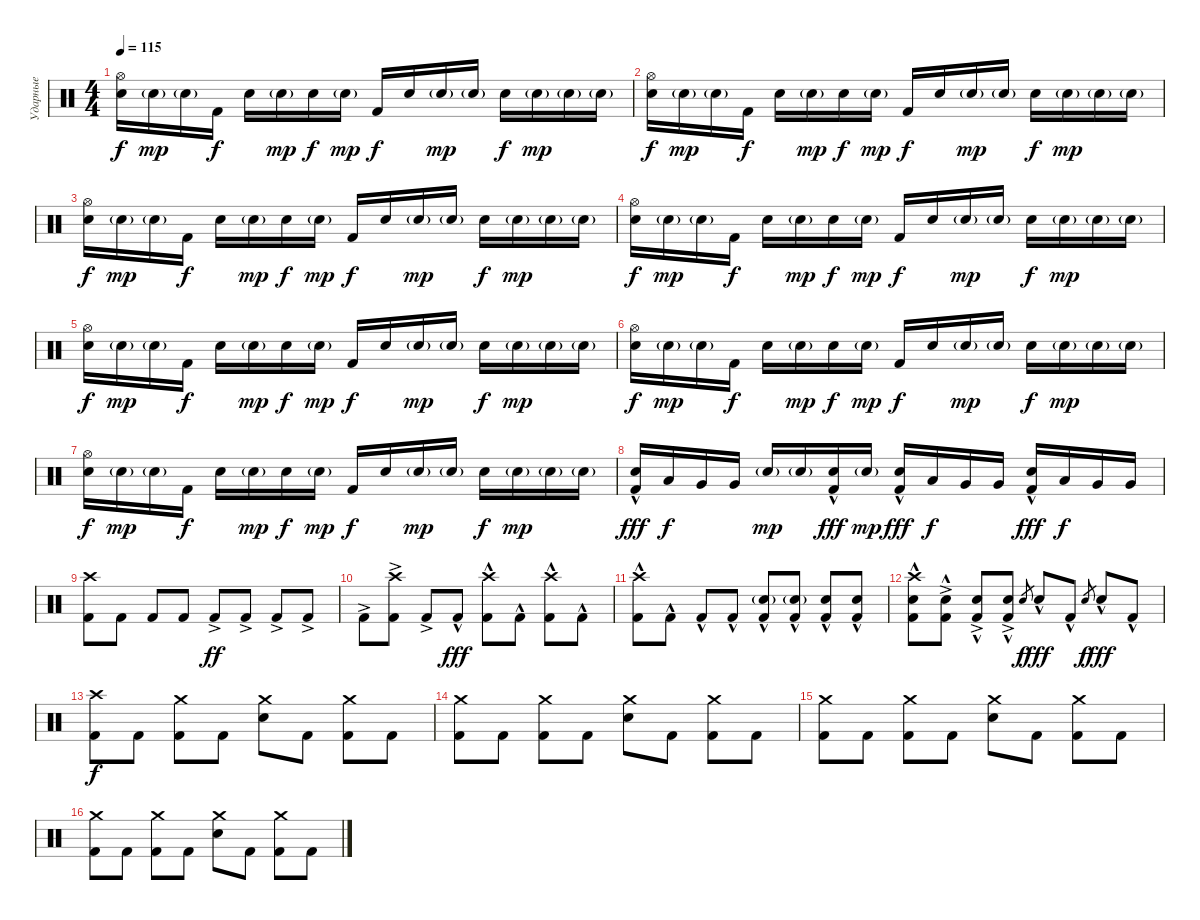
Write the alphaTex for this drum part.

\track ("Ударные" "Ударные") {instrument percussion}
\staff {score}
\articulation defaults
\ts (4 4)
\tempo 115
\clef neutral
\ks c
("Hi-Hat (open)" "Electric Snare (hit)").16{dy f} "Electric Snare (hit)"{g}.16{dy mp} "Electric Snare (hit)"{g}.16 "Kick (hit) 2".16{dy f} "Electric Snare (hit)".16 "Electric Snare (hit)"{g}.16{dy mp} "Electric Snare (hit)".16{dy f} "Electric Snare (hit)"{g}.16{dy mp} "Kick (hit) 2".16{dy f} "Electric Snare (hit)".16 "Electric Snare (hit)"{g}.16{dy mp} "Electric Snare (hit)"{g}.16 "Electric Snare (hit)".16{dy f} "Electric Snare (hit)"{g}.16{dy mp} "Electric Snare (hit)"{g}.16 "Electric Snare (hit)"{g}.16 |
("Hi-Hat (open)" "Electric Snare (hit)").16{dy f} "Electric Snare (hit)"{g}.16{dy mp} "Electric Snare (hit)"{g}.16 "Kick (hit) 2".16{dy f} "Electric Snare (hit)".16 "Electric Snare (hit)"{g}.16{dy mp} "Electric Snare (hit)".16{dy f} "Electric Snare (hit)"{g}.16{dy mp} "Kick (hit) 2".16{dy f} "Electric Snare (hit)".16 "Electric Snare (hit)"{g}.16{dy mp} "Electric Snare (hit)"{g}.16 "Electric Snare (hit)".16{dy f} "Electric Snare (hit)"{g}.16{dy mp} "Electric Snare (hit)"{g}.16 "Electric Snare (hit)"{g}.16 |
("Hi-Hat (open)" "Electric Snare (hit)").16{dy f} "Electric Snare (hit)"{g}.16{dy mp} "Electric Snare (hit)"{g}.16 "Kick (hit) 2".16{dy f} "Electric Snare (hit)".16 "Electric Snare (hit)"{g}.16{dy mp} "Electric Snare (hit)".16{dy f} "Electric Snare (hit)"{g}.16{dy mp} "Kick (hit) 2".16{dy f} "Electric Snare (hit)".16 "Electric Snare (hit)"{g}.16{dy mp} "Electric Snare (hit)"{g}.16 "Electric Snare (hit)".16{dy f} "Electric Snare (hit)"{g}.16{dy mp} "Electric Snare (hit)"{g}.16 "Electric Snare (hit)"{g}.16 |
("Hi-Hat (open)" "Electric Snare (hit)").16{dy f} "Electric Snare (hit)"{g}.16{dy mp} "Electric Snare (hit)"{g}.16 "Kick (hit) 2".16{dy f} "Electric Snare (hit)".16 "Electric Snare (hit)"{g}.16{dy mp} "Electric Snare (hit)".16{dy f} "Electric Snare (hit)"{g}.16{dy mp} "Kick (hit) 2".16{dy f} "Electric Snare (hit)".16 "Electric Snare (hit)"{g}.16{dy mp} "Electric Snare (hit)"{g}.16 "Electric Snare (hit)".16{dy f} "Electric Snare (hit)"{g}.16{dy mp} "Electric Snare (hit)"{g}.16 "Electric Snare (hit)"{g}.16 |
("Hi-Hat (open)" "Electric Snare (hit)").16{dy f} "Electric Snare (hit)"{g}.16{dy mp} "Electric Snare (hit)"{g}.16 "Kick (hit) 2".16{dy f} "Electric Snare (hit)".16 "Electric Snare (hit)"{g}.16{dy mp} "Electric Snare (hit)".16{dy f} "Electric Snare (hit)"{g}.16{dy mp} "Kick (hit) 2".16{dy f} "Electric Snare (hit)".16 "Electric Snare (hit)"{g}.16{dy mp} "Electric Snare (hit)"{g}.16 "Electric Snare (hit)".16{dy f} "Electric Snare (hit)"{g}.16{dy mp} "Electric Snare (hit)"{g}.16 "Electric Snare (hit)"{g}.16 |
("Hi-Hat (open)" "Electric Snare (hit)").16{dy f} "Electric Snare (hit)"{g}.16{dy mp} "Electric Snare (hit)"{g}.16 "Kick (hit) 2".16{dy f} "Electric Snare (hit)".16 "Electric Snare (hit)"{g}.16{dy mp} "Electric Snare (hit)".16{dy f} "Electric Snare (hit)"{g}.16{dy mp} "Kick (hit) 2".16{dy f} "Electric Snare (hit)".16 "Electric Snare (hit)"{g}.16{dy mp} "Electric Snare (hit)"{g}.16 "Electric Snare (hit)".16{dy f} "Electric Snare (hit)"{g}.16{dy mp} "Electric Snare (hit)"{g}.16 "Electric Snare (hit)"{g}.16 |
("Hi-Hat (open)" "Electric Snare (hit)").16{dy f} "Electric Snare (hit)"{g}.16{dy mp} "Electric Snare (hit)"{g}.16 "Kick (hit) 2".16{dy f} "Electric Snare (hit)".16 "Electric Snare (hit)"{g}.16{dy mp} "Electric Snare (hit)".16{dy f} "Electric Snare (hit)"{g}.16{dy mp} "Kick (hit) 2".16{dy f} "Electric Snare (hit)".16 "Electric Snare (hit)"{g}.16{dy mp} "Electric Snare (hit)"{g}.16 "Electric Snare (hit)".16{dy f} "Electric Snare (hit)"{g}.16{dy mp} "Electric Snare (hit)"{g}.16 "Electric Snare (hit)"{g}.16 |
("Electric Snare (hit)"{hac} "Kick (hit) 2").16{dy fff} "Low Tom (hit)".16{dy f} "Very Low Tom (hit)".16 "Very Low Tom (hit)".16 "Electric Snare (hit)"{g}.16{dy mp} "Electric Snare (hit)"{g}.16 ("Electric Snare (hit)"{hac} "Kick (hit) 2").16{dy fff} "Electric Snare (hit)"{g}.16{dy mp} ("Electric Snare (hit)"{hac} "Kick (hit) 2").16{dy fff} "Low Tom (hit)".16{dy f} "Very Low Tom (hit)".16 "Very Low Tom (hit)".16 ("Electric Snare (hit)"{hac} "Kick (hit) 2").16{dy fff} "Low Tom (hit)".16{dy f} "Very Low Tom (hit)".16 "Very Low Tom (hit)".16 |
("Crash high (hit)" "Kick (hit) 2").8{volume 13} "Kick (hit) 2".8 "Kick (hit) 2".8 "Kick (hit) 2".8 "Kick (hit) 2"{ac}.8{dy ff} "Kick (hit) 2"{ac}.8 "Kick (hit) 2"{ac}.8 "Kick (hit) 2"{ac}.8 |
"Kick (hit) 2"{ac}.8 ("Crash high (hit)" "Kick (hit) 2"{ac}).8 "Kick (hit) 2"{ac}.8 "Kick (hit) 2"{hac}.8{dy fff} ("Crash high (hit)" "Kick (hit) 2"{hac}).8 "Kick (hit) 2"{hac}.8 ("Crash high (hit)" "Kick (hit) 2"{hac}).8 "Kick (hit) 2"{hac}.8 |
("Crash high (hit)" "Kick (hit) 2"{hac}).8 "Kick (hit) 2"{hac}.8 "Kick (hit) 2"{hac}.8 "Kick (hit) 2"{hac}.8 ("Electric Snare (hit)"{g} "Kick (hit) 2"{hac}).8 ("Electric Snare (hit)"{g} "Kick (hit) 2"{hac}).8 ("Electric Snare (hit)" "Kick (hit) 2"{hac}).8 ("Electric Snare (hit)" "Kick (hit) 2"{hac}).8 |
("Crash high (hit)" "Electric Snare (hit)" "Kick (hit) 2"{hac}).8 ("Electric Snare (hit)"{ac} "Kick (hit) 2"{hac}).8 ("Electric Snare (hit)"{ac} "Kick (hit) 2"{hac}).8 ("Electric Snare (hit)"{ac} "Kick (hit) 2"{hac}).8 "Electric Snare (hit)".8{gr dy f} "Electric Snare (hit)"{hac}.8{dy fff} "Kick (hit) 2"{hac}.8 "Electric Snare (hit)".8{gr dy f} "Electric Snare (hit)"{hac}.8{dy fff} "Kick (hit) 2"{hac}.8 |
("Crash high (hit)" "Kick (hit) 2").8{dy f} "Kick (hit) 2".8 ("Crash medium (hit)" "Kick (hit) 2").8 "Kick (hit) 2".8 ("Crash medium (hit)" "Electric Snare (hit)").8 "Kick (hit) 2".8 ("Crash medium (hit)" "Kick (hit) 2").8 "Kick (hit) 2".8 |
("Crash medium (hit)" "Kick (hit) 2").8 "Kick (hit) 2".8 ("Crash medium (hit)" "Kick (hit) 2").8 "Kick (hit) 2".8 ("Crash medium (hit)" "Electric Snare (hit)").8 "Kick (hit) 2".8 ("Crash medium (hit)" "Kick (hit) 2").8 "Kick (hit) 2".8 |
("Crash medium (hit)" "Kick (hit) 2").8 "Kick (hit) 2".8 ("Crash medium (hit)" "Kick (hit) 2").8 "Kick (hit) 2".8 ("Crash medium (hit)" "Electric Snare (hit)").8 "Kick (hit) 2".8 ("Crash medium (hit)" "Kick (hit) 2").8 "Kick (hit) 2".8 |
("Crash medium (hit)" "Kick (hit) 2").8 "Kick (hit) 2".8 ("Crash medium (hit)" "Kick (hit) 2").8 "Kick (hit) 2".8 ("Crash medium (hit)" "Electric Snare (hit)").8 "Kick (hit) 2".8 ("Crash medium (hit)" "Kick (hit) 2").8 "Kick (hit) 2".8
